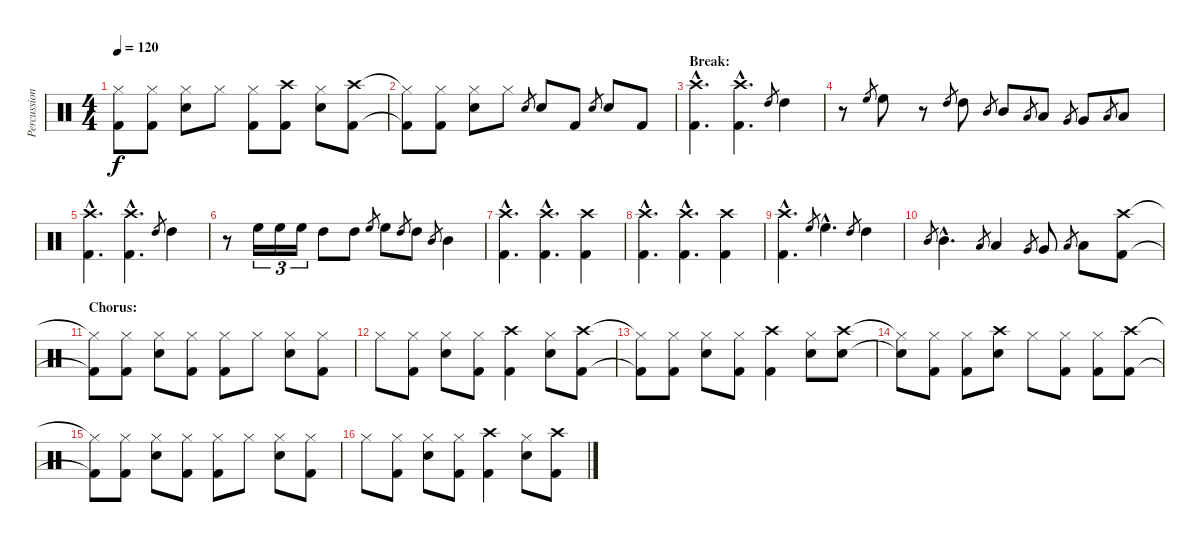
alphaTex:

\track ("Percussion" "Percussion") {instrument percussion}
\staff {score}
\articulation defaults
\ts (4 4)
\tempo 120
\clef neutral
\ks c
("Hi-Hat (closed)"{t} "Kick (hit) 2"{t}).8{dy f} ("Hi-Hat (closed)" "Kick (hit) 2").8 ("Hi-Hat (closed)" "Snare (hit) 2").8 "Hi-Hat (closed)".8 ("Hi-Hat (closed)" "Kick (hit) 2").8 ("Crash high (hit)" "Kick (hit) 2").8 ("Hi-Hat (closed)" "Snare (hit) 2").8 ("Crash high (hit)" "Kick (hit) 2").8 |
("Hi-Hat (closed)"{t} "Kick (hit) 2"{t}).8 ("Hi-Hat (closed)" "Kick (hit) 2").8 ("Hi-Hat (closed)" "Snare (hit) 2").8 "Hi-Hat (closed)".8 "Snare (hit) 2".8{gr} "Snare (hit) 2".8 "Kick (hit) 2".8 "Snare (hit) 2".8{gr} "Snare (hit) 2".8 "Kick (hit) 2".8 |
\section ("" "Break:")
("Crash high (hit)"{hac} "Kick (hit) 2"{hac}).4{d} ("Crash high (hit)"{hac} "Kick (hit) 2"{hac}).4{d} "High Tom (hit)".8{gr} "High Tom (hit)".4 |
r.8 "High Floor Tom (hit)".8{gr} "High Floor Tom (hit)".8 r.8 "High Tom (hit)".8{gr} "High Tom (hit)".8 "Mid Tom (hit)".8{gr} "Mid Tom (hit)".8 "Low Tom (hit)".8{gr} "Low Tom (hit)".8 "Very Low Tom (hit)".8{gr} "Very Low Tom (hit)".8 "Low Floor Tom (hit)".8{gr} "Low Floor Tom (hit)".8 |
("Crash high (hit)"{hac} "Kick (hit) 2"{hac}).4{d} ("Crash high (hit)"{hac} "Kick (hit) 2"{hac}).4{d} "High Tom (hit)".8{gr} "High Tom (hit)".4 |
r.8 "High Floor Tom (hit)".16{tu (3 2)} "High Floor Tom (hit)".16{tu (3 2)} "High Floor Tom (hit)".16{tu (3 2)} "High Tom (hit)".8 "High Tom (hit)".8 "High Floor Tom (hit)".8{gr} "High Floor Tom (hit)".8 "High Tom (hit)".8{gr} "High Tom (hit)".8 "Mid Tom (hit)".8{gr} "Mid Tom (hit)".4 |
("Crash high (hit)"{hac} "Kick (hit) 2"{hac}).4{d} ("Crash high (hit)"{hac} "Kick (hit) 2"{hac}).4{d} ("Crash high (hit)" "Kick (hit) 2").4 |
("Crash high (hit)"{hac} "Kick (hit) 2"{hac}).4{d} ("Crash high (hit)"{hac} "Kick (hit) 2"{hac}).4{d} ("Crash high (hit)" "Kick (hit) 2").4 |
("Crash high (hit)"{hac} "Kick (hit) 2"{hac}).4{d} "High Floor Tom (hit)".8{gr} "High Floor Tom (hit)"{hac}.4{d} "High Tom (hit)".8{gr} "High Tom (hit)".4 |
"Mid Tom (hit)".8{gr} "Mid Tom (hit)"{hac}.4{d} "Low Tom (hit)".8{gr} "Low Tom (hit)".4 "Very Low Tom (hit)".8{gr} "Very Low Tom (hit)".8 "Low Floor Tom (hit)".8{gr} "Low Floor Tom (hit)".8 ("Crash high (hit)" "Kick (hit) 2").8 |
\section ("" "Chorus:")
("Hi-Hat (closed)"{t} "Kick (hit) 2"{t}).8 ("Hi-Hat (closed)" "Kick (hit) 2").8 ("Hi-Hat (closed)" "Snare (hit) 2").8 ("Hi-Hat (closed)" "Kick (hit) 2").8 ("Hi-Hat (closed)" "Kick (hit) 2").8 "Hi-Hat (closed)".8 ("Hi-Hat (closed)" "Snare (hit) 2").8 ("Hi-Hat (closed)" "Kick (hit) 2").8 |
"Hi-Hat (closed)".8 ("Hi-Hat (closed)" "Kick (hit) 2").8 ("Hi-Hat (closed)" "Snare (hit) 2").8 ("Hi-Hat (closed)" "Kick (hit) 2").8 ("Crash high (hit)" "Kick (hit) 2").4 ("Hi-Hat (closed)" "Snare (hit) 2").8 ("Crash high (hit)" "Kick (hit) 2").8 |
("Hi-Hat (closed)"{t} "Kick (hit) 2"{t}).8 ("Hi-Hat (closed)" "Kick (hit) 2").8 ("Hi-Hat (closed)" "Snare (hit) 2").8 ("Hi-Hat (closed)" "Kick (hit) 2").8 ("Crash high (hit)" "Kick (hit) 2").4 ("Hi-Hat (closed)" "Snare (hit) 2").8 ("Crash high (hit)" "Snare (hit) 2").8 |
("Hi-Hat (closed)"{t} "Snare (hit)"{t}).8 ("Hi-Hat (closed)" "Kick (hit) 2").8 ("Hi-Hat (closed)" "Kick (hit) 2").8 ("Crash high (hit)" "Snare (hit) 2").8 "Hi-Hat (closed)".8 ("Hi-Hat (closed)" "Kick (hit) 2").8 ("Hi-Hat (closed)" "Kick (hit) 2").8 ("Crash high (hit)" "Kick (hit) 2").8 |
("Hi-Hat (closed)"{t} "Kick (hit) 2"{t}).8 ("Hi-Hat (closed)" "Kick (hit) 2").8 ("Hi-Hat (closed)" "Snare (hit) 2").8 ("Hi-Hat (closed)" "Kick (hit) 2").8 ("Hi-Hat (closed)" "Kick (hit) 2").8 "Hi-Hat (closed)".8 ("Hi-Hat (closed)" "Snare (hit) 2").8 ("Hi-Hat (closed)" "Kick (hit) 2").8 |
"Hi-Hat (closed)".8 ("Hi-Hat (closed)" "Kick (hit) 2").8 ("Hi-Hat (closed)" "Snare (hit) 2").8 ("Hi-Hat (closed)" "Kick (hit) 2").8 ("Crash high (hit)" "Kick (hit) 2").4 ("Hi-Hat (closed)" "Snare (hit) 2").8 ("Crash high (hit)" "Kick (hit) 2").8
